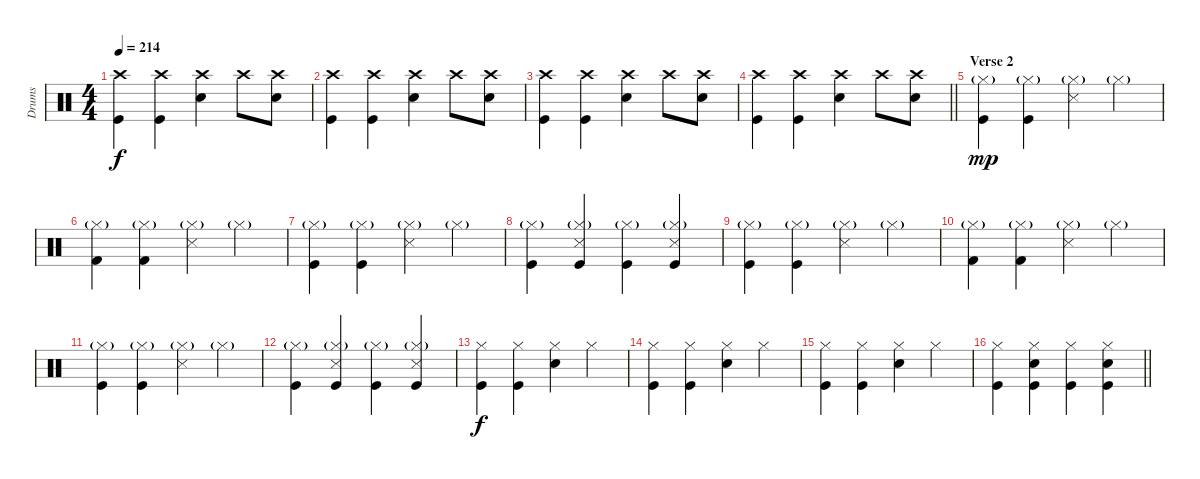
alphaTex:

\track ("Drums" "Drums") {instrument percussion}
\staff {score}
\articulation defaults
\ts (4 4)
\tempo 214
\clef neutral
\ks c
("Crash high (hit)" "Kick (hit)").4{dy f} ("Crash high (hit)" "Kick (hit)").4 ("Crash high (hit)" "Snare (hit) 2").4 "Crash high (hit)".8 ("Crash high (hit)" "Snare (hit) 2").8 |
("Crash high (hit)" "Kick (hit)").4 ("Crash high (hit)" "Kick (hit)").4 ("Crash high (hit)" "Snare (hit) 2").4 "Crash high (hit)".8 ("Crash high (hit)" "Snare (hit) 2").8 |
("Crash high (hit)" "Kick (hit)").4 ("Crash high (hit)" "Kick (hit)").4 ("Crash high (hit)" "Snare (hit) 2").4 "Crash high (hit)".8 ("Crash high (hit)" "Snare (hit) 2").8 |
\barLineRight lightlight
("Crash high (hit)" "Kick (hit)").4 ("Crash high (hit)" "Kick (hit)").4 ("Crash high (hit)" "Snare (hit) 2").4 "Crash high (hit)".8 ("Crash high (hit)" "Snare (hit) 2").8 |
\section ("" "Verse 2")
("Hi-Hat (closed)"{g} "Kick (hit)").4{dy mp volume 16} ("Hi-Hat (closed)"{g} "Kick (hit)").4 ("Hi-Hat (closed)"{g} "Snare (side stick) 3").4 "Hi-Hat (closed)"{g}.4 |
("Hi-Hat (closed)"{g} "Kick (hit) 2").4 ("Hi-Hat (closed)"{g} "Kick (hit) 2").4 ("Hi-Hat (closed)"{g} "Snare (side stick) 3").4 "Hi-Hat (closed)"{g}.4 |
("Hi-Hat (closed)"{g} "Kick (hit)").4 ("Hi-Hat (closed)"{g} "Kick (hit)").4 ("Hi-Hat (closed)"{g} "Snare (side stick) 3").4 "Hi-Hat (closed)"{g}.4 |
("Hi-Hat (closed)"{g} "Kick (hit)").4 ("Hi-Hat (closed)"{g} "Snare (side stick) 3" "Kick (hit)").4 ("Hi-Hat (closed)"{g} "Kick (hit)").4 ("Hi-Hat (closed)"{g} "Snare (side stick) 3" "Kick (hit)").4 |
("Hi-Hat (closed)"{g} "Kick (hit)").4 ("Hi-Hat (closed)"{g} "Kick (hit)").4 ("Hi-Hat (closed)"{g} "Snare (side stick) 3").4 "Hi-Hat (closed)"{g}.4 |
("Hi-Hat (closed)"{g} "Kick (hit) 2").4 ("Hi-Hat (closed)"{g} "Kick (hit) 2").4 ("Hi-Hat (closed)"{g} "Snare (side stick) 3").4 "Hi-Hat (closed)"{g}.4 |
("Hi-Hat (closed)"{g} "Kick (hit)").4 ("Hi-Hat (closed)"{g} "Kick (hit)").4 ("Hi-Hat (closed)"{g} "Snare (side stick) 3").4 "Hi-Hat (closed)"{g}.4 |
("Hi-Hat (closed)"{g} "Kick (hit)").4 ("Hi-Hat (closed)"{g} "Snare (side stick) 3" "Kick (hit)").4 ("Hi-Hat (closed)"{g} "Kick (hit)").4 ("Hi-Hat (closed)"{g} "Snare (side stick) 3" "Kick (hit)").4 |
("Hi-Hat (closed)" "Kick (hit)").4{dy f} ("Hi-Hat (closed)" "Kick (hit)").4 ("Hi-Hat (closed)" "Snare (hit) 2").4 "Hi-Hat (closed)".4 |
("Hi-Hat (closed)" "Kick (hit)").4 ("Hi-Hat (closed)" "Kick (hit)").4 ("Hi-Hat (closed)" "Snare (hit) 2").4 "Hi-Hat (closed)".4 |
("Hi-Hat (closed)" "Kick (hit)").4 ("Hi-Hat (closed)" "Kick (hit)").4 ("Hi-Hat (closed)" "Snare (hit) 2").4 "Hi-Hat (closed)".4 |
\barLineRight lightlight
("Hi-Hat (closed)" "Kick (hit)").4 ("Hi-Hat (closed)" "Snare (hit) 2" "Kick (hit)").4 ("Hi-Hat (closed)" "Kick (hit)").4 ("Hi-Hat (closed)" "Snare (hit) 2" "Kick (hit)").4
